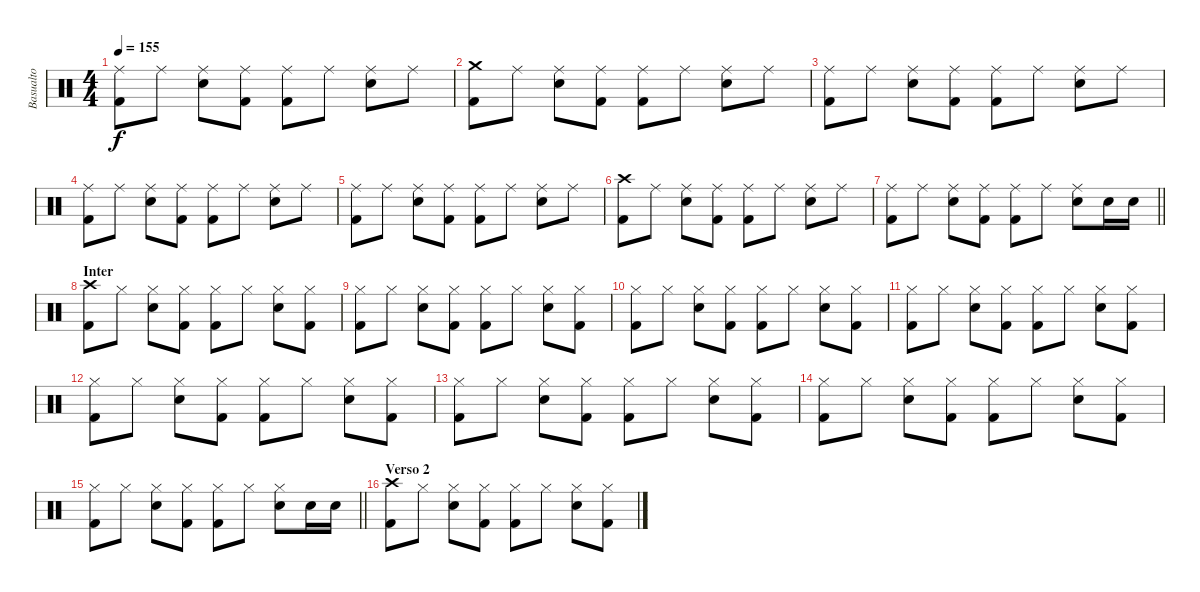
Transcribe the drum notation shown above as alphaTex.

\track ("Basualto" "Basualto") {instrument percussion}
\staff {score}
\articulation defaults
\ts (4 4)
\tempo 155
\clef neutral
\ks c
("Ride (middle)" "Kick (hit) 2").8{dy f} "Ride (middle)".8 ("Ride (middle)" "Electric Snare (hit)").8 ("Ride (middle)" "Kick (hit) 2").8 ("Ride (middle)" "Kick (hit) 2").8 "Ride (middle)".8 ("Ride (middle)" "Electric Snare (hit)").8 "Ride (middle)".8 |
("Crash medium (hit)" "Kick (hit) 2").8 "Ride (middle)".8 ("Ride (middle)" "Electric Snare (hit)").8 ("Ride (middle)" "Kick (hit) 2").8 ("Ride (middle)" "Kick (hit) 2").8 "Ride (middle)".8 ("Ride (middle)" "Electric Snare (hit)").8 "Ride (middle)".8 |
("Ride (middle)" "Kick (hit) 2").8 "Ride (middle)".8 ("Ride (middle)" "Electric Snare (hit)").8 ("Ride (middle)" "Kick (hit) 2").8 ("Ride (middle)" "Kick (hit) 2").8 "Ride (middle)".8 ("Ride (middle)" "Electric Snare (hit)").8 "Ride (middle)".8 |
("Ride (middle)" "Kick (hit) 2").8 "Ride (middle)".8 ("Ride (middle)" "Electric Snare (hit)").8 ("Ride (middle)" "Kick (hit) 2").8 ("Ride (middle)" "Kick (hit) 2").8 "Ride (middle)".8 ("Ride (middle)" "Electric Snare (hit)").8 "Ride (middle)".8 |
("Ride (middle)" "Kick (hit) 2").8 "Ride (middle)".8 ("Ride (middle)" "Electric Snare (hit)").8 ("Ride (middle)" "Kick (hit) 2").8 ("Ride (middle)" "Kick (hit) 2").8 "Ride (middle)".8 ("Ride (middle)" "Electric Snare (hit)").8 "Ride (middle)".8 |
("Crash high (hit)" "Kick (hit) 2").8 "Ride (middle)".8 ("Ride (middle)" "Electric Snare (hit)").8 ("Ride (middle)" "Kick (hit) 2").8 ("Ride (middle)" "Kick (hit) 2").8 "Ride (middle)".8 ("Ride (middle)" "Electric Snare (hit)").8 "Ride (middle)".8 |
\barLineRight lightlight
("Ride (middle)" "Kick (hit) 2").8 "Ride (middle)".8 ("Ride (middle)" "Electric Snare (hit)").8 ("Ride (middle)" "Kick (hit) 2").8 ("Ride (middle)" "Kick (hit) 2").8 "Ride (middle)".8 ("Ride (middle)" "Electric Snare (hit)").8 "Electric Snare (hit)".16 "Electric Snare (hit)".16 |
\section ("" "Inter")
("Crash high (hit)" "Kick (hit) 2").8 "Hi-Hat (closed)".8 ("Hi-Hat (closed)" "Electric Snare (hit)").8 ("Hi-Hat (closed)" "Kick (hit) 2").8 ("Hi-Hat (closed)" "Kick (hit) 2").8 "Hi-Hat (closed)".8 ("Hi-Hat (closed)" "Electric Snare (hit)").8 ("Hi-Hat (closed)" "Kick (hit) 2").8 |
("Hi-Hat (closed)" "Kick (hit) 2").8 "Hi-Hat (closed)".8 ("Hi-Hat (closed)" "Electric Snare (hit)").8 ("Hi-Hat (closed)" "Kick (hit) 2").8 ("Hi-Hat (closed)" "Kick (hit) 2").8 "Hi-Hat (closed)".8 ("Hi-Hat (closed)" "Electric Snare (hit)").8 ("Hi-Hat (closed)" "Kick (hit) 2").8 |
("Hi-Hat (closed)" "Kick (hit) 2").8 "Hi-Hat (closed)".8 ("Hi-Hat (closed)" "Electric Snare (hit)").8 ("Hi-Hat (closed)" "Kick (hit) 2").8 ("Hi-Hat (closed)" "Kick (hit) 2").8 "Hi-Hat (closed)".8 ("Hi-Hat (closed)" "Electric Snare (hit)").8 ("Hi-Hat (closed)" "Kick (hit) 2").8 |
("Hi-Hat (closed)" "Kick (hit) 2").8 "Hi-Hat (closed)".8 ("Hi-Hat (closed)" "Electric Snare (hit)").8 ("Hi-Hat (closed)" "Kick (hit) 2").8 ("Hi-Hat (closed)" "Kick (hit) 2").8 "Hi-Hat (closed)".8 ("Hi-Hat (closed)" "Electric Snare (hit)").8 ("Hi-Hat (closed)" "Kick (hit) 2").8 |
("Hi-Hat (closed)" "Kick (hit) 2").8 "Hi-Hat (closed)".8 ("Hi-Hat (closed)" "Electric Snare (hit)").8 ("Hi-Hat (closed)" "Kick (hit) 2").8 ("Hi-Hat (closed)" "Kick (hit) 2").8 "Hi-Hat (closed)".8 ("Hi-Hat (closed)" "Electric Snare (hit)").8 ("Hi-Hat (closed)" "Kick (hit) 2").8 |
("Hi-Hat (closed)" "Kick (hit) 2").8 "Hi-Hat (closed)".8 ("Hi-Hat (closed)" "Electric Snare (hit)").8 ("Hi-Hat (closed)" "Kick (hit) 2").8 ("Hi-Hat (closed)" "Kick (hit) 2").8 "Hi-Hat (closed)".8 ("Hi-Hat (closed)" "Electric Snare (hit)").8 ("Hi-Hat (closed)" "Kick (hit) 2").8 |
("Hi-Hat (closed)" "Kick (hit) 2").8 "Hi-Hat (closed)".8 ("Hi-Hat (closed)" "Electric Snare (hit)").8 ("Hi-Hat (closed)" "Kick (hit) 2").8 ("Hi-Hat (closed)" "Kick (hit) 2").8 "Hi-Hat (closed)".8 ("Hi-Hat (closed)" "Electric Snare (hit)").8 ("Hi-Hat (closed)" "Kick (hit) 2").8 |
\barLineRight lightlight
("Hi-Hat (closed)" "Kick (hit) 2").8 "Hi-Hat (closed)".8 ("Hi-Hat (closed)" "Electric Snare (hit)").8 ("Hi-Hat (closed)" "Kick (hit) 2").8 ("Hi-Hat (closed)" "Kick (hit) 2").8 "Hi-Hat (closed)".8 ("Hi-Hat (closed)" "Electric Snare (hit)").8 "Electric Snare (hit)".16 "Electric Snare (hit)".16 |
\section ("" "Verso 2")
("Crash high (hit)" "Kick (hit) 2").8 "Hi-Hat (closed)".8 ("Hi-Hat (closed)" "Electric Snare (hit)").8 ("Hi-Hat (closed)" "Kick (hit) 2").8 ("Hi-Hat (closed)" "Kick (hit) 2").8 "Hi-Hat (closed)".8 ("Hi-Hat (closed)" "Electric Snare (hit)").8 ("Hi-Hat (closed)" "Kick (hit) 2").8
